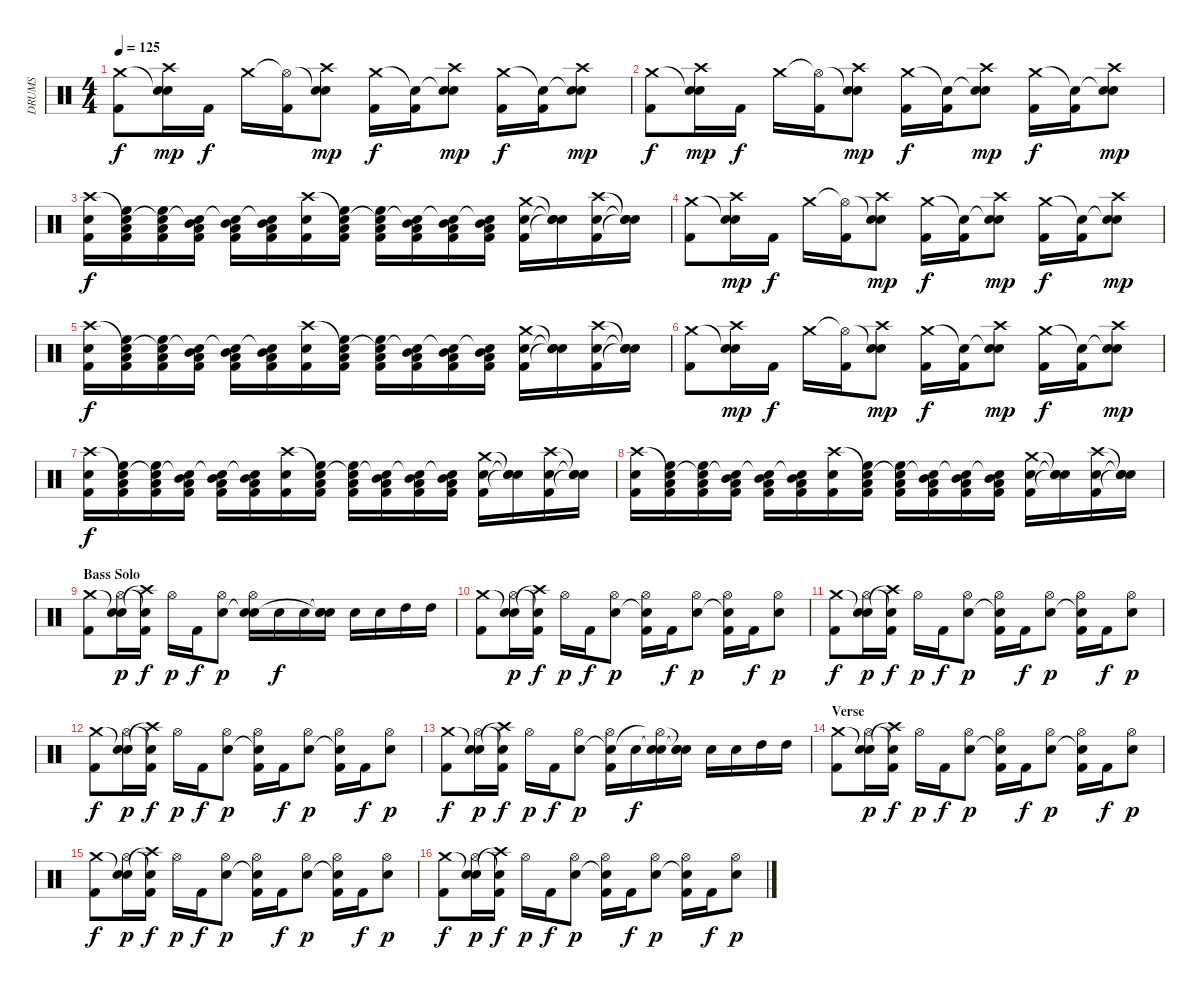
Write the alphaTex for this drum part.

\track ("DRUMS" "DRUMS") {instrument percussion}
\staff {score}
\articulation defaults
\ts (4 4)
\tempo 125
\clef neutral
\ks c
("Crash medium (hit)" "Kick (hit) 2").8{dy f} ("Snare (hit)"{t} "Crash high (hit)" "Electric Snare (hit)").16{dy mp} "Kick (hit) 2".16{dy f} "Crash medium (hit)".16 ("Hi-Hat (open)"{t} "Kick (hit) 2").16 ("Snare (hit)"{t} "Crash high (hit)" "Electric Snare (hit)").8{dy mp} ("Crash medium (hit)" "Kick (hit) 2").16{dy f} ("Snare (hit)"{t} "Kick (hit) 2").16 ("Snare (hit)"{t} "Crash high (hit)" "Electric Snare (hit)").8{dy mp} ("Crash medium (hit)" "Kick (hit) 2").16{dy f} ("Snare (hit)"{t} "Kick (hit) 2").16 ("Snare (hit)"{t} "Crash high (hit)" "Electric Snare (hit)").8{dy mp} |
("Crash medium (hit)" "Kick (hit) 2").8{dy f} ("Snare (hit)"{t} "Crash high (hit)" "Electric Snare (hit)").16{dy mp} "Kick (hit) 2".16{dy f} "Crash medium (hit)".16 ("Hi-Hat (open)"{t} "Kick (hit) 2").16 ("Snare (hit)"{t} "Crash high (hit)" "Electric Snare (hit)").8{dy mp} ("Crash medium (hit)" "Kick (hit) 2").16{dy f} ("Snare (hit)"{t} "Kick (hit) 2").16 ("Snare (hit)"{t} "Crash high (hit)" "Electric Snare (hit)").8{dy mp} ("Crash medium (hit)" "Kick (hit) 2").16{dy f} ("Snare (hit)"{t} "Kick (hit) 2").16 ("Snare (hit)"{t} "Crash high (hit)" "Electric Snare (hit)").8{dy mp} |
("Crash high (hit)" "Electric Snare (hit)" "Kick (hit) 2").16{dy f} ("Snare (hit)"{t} "Low Tom (hit)" "High Floor Tom (hit)" "Kick (hit) 2").16 ("Snare (hit)"{t} "Low Tom (hit)" "High Floor Tom (hit)" "Kick (hit) 2").16 ("Snare (hit)"{t} "Low Floor Tom (hit)" "Mid Tom (hit)" "Kick (hit) 2").16 ("Snare (hit)"{t} "Low Floor Tom (hit)" "Mid Tom (hit)" "Kick (hit) 2").16 ("Snare (hit)"{t} "Low Floor Tom (hit)" "Mid Tom (hit)" "Kick (hit) 2").16 ("Crash high (hit)" "Electric Snare (hit)" "Kick (hit) 2").16 ("Snare (hit)"{t} "Low Tom (hit)" "High Floor Tom (hit)" "Kick (hit) 2").16 ("Snare (hit)"{t} "Low Tom (hit)" "High Floor Tom (hit)" "Kick (hit) 2").16 ("Snare (hit)"{t} "Low Floor Tom (hit)" "Mid Tom (hit)" "Kick (hit) 2").16 ("Snare (hit)"{t} "Low Floor Tom (hit)" "Mid Tom (hit)" "Kick (hit) 2").16 ("Snare (hit)"{t} "Low Floor Tom (hit)" "Mid Tom (hit)" "Kick (hit) 2").16 ("Crash medium (hit)" "Electric Snare (hit)" "Kick (hit) 2").16 ("Snare (hit)"{t} "Snare (hit)"{t} "Snare (hit)"{t}).16 ("Crash high (hit)" "Electric Snare (hit)" "Kick (hit) 2").16 ("Snare (hit)"{t} "Snare (hit)"{t} "Snare (hit)"{t}).16 |
("Crash medium (hit)" "Kick (hit) 2").8 ("Snare (hit)"{t} "Crash high (hit)" "Electric Snare (hit)").16{dy mp} "Kick (hit) 2".16{dy f} "Crash medium (hit)".16 ("Hi-Hat (open)"{t} "Kick (hit) 2").16 ("Snare (hit)"{t} "Crash high (hit)" "Electric Snare (hit)").8{dy mp} ("Crash medium (hit)" "Kick (hit) 2").16{dy f} ("Snare (hit)"{t} "Kick (hit) 2").16 ("Snare (hit)"{t} "Crash high (hit)" "Electric Snare (hit)").8{dy mp} ("Crash medium (hit)" "Kick (hit) 2").16{dy f} ("Snare (hit)"{t} "Kick (hit) 2").16 ("Snare (hit)"{t} "Crash high (hit)" "Electric Snare (hit)").8{dy mp} |
("Crash high (hit)" "Electric Snare (hit)" "Kick (hit) 2").16{dy f} ("Snare (hit)"{t} "Low Tom (hit)" "High Floor Tom (hit)" "Kick (hit) 2").16 ("Snare (hit)"{t} "Low Tom (hit)" "High Floor Tom (hit)" "Kick (hit) 2").16 ("Snare (hit)"{t} "Low Floor Tom (hit)" "Mid Tom (hit)" "Kick (hit) 2").16 ("Snare (hit)"{t} "Low Floor Tom (hit)" "Mid Tom (hit)" "Kick (hit) 2").16 ("Snare (hit)"{t} "Low Floor Tom (hit)" "Mid Tom (hit)" "Kick (hit) 2").16 ("Crash high (hit)" "Electric Snare (hit)" "Kick (hit) 2").16 ("Snare (hit)"{t} "Low Tom (hit)" "High Floor Tom (hit)" "Kick (hit) 2").16 ("Snare (hit)"{t} "Low Tom (hit)" "High Floor Tom (hit)" "Kick (hit) 2").16 ("Snare (hit)"{t} "Low Floor Tom (hit)" "Mid Tom (hit)" "Kick (hit) 2").16 ("Snare (hit)"{t} "Low Floor Tom (hit)" "Mid Tom (hit)" "Kick (hit) 2").16 ("Snare (hit)"{t} "Low Floor Tom (hit)" "Mid Tom (hit)" "Kick (hit) 2").16 ("Crash medium (hit)" "Electric Snare (hit)" "Kick (hit) 2").16 ("Snare (hit)"{t} "Snare (hit)"{t} "Snare (hit)"{t}).16 ("Crash high (hit)" "Electric Snare (hit)" "Kick (hit) 2").16 ("Snare (hit)"{t} "Snare (hit)"{t} "Snare (hit)"{t}).16 |
("Crash medium (hit)" "Kick (hit) 2").8 ("Snare (hit)"{t} "Crash high (hit)" "Electric Snare (hit)").16{dy mp} "Kick (hit) 2".16{dy f} "Crash medium (hit)".16 ("Hi-Hat (open)"{t} "Kick (hit) 2").16 ("Snare (hit)"{t} "Crash high (hit)" "Electric Snare (hit)").8{dy mp} ("Crash medium (hit)" "Kick (hit) 2").16{dy f} ("Snare (hit)"{t} "Kick (hit) 2").16 ("Snare (hit)"{t} "Crash high (hit)" "Electric Snare (hit)").8{dy mp} ("Crash medium (hit)" "Kick (hit) 2").16{dy f} ("Snare (hit)"{t} "Kick (hit) 2").16 ("Snare (hit)"{t} "Crash high (hit)" "Electric Snare (hit)").8{dy mp} |
("Crash high (hit)" "Electric Snare (hit)" "Kick (hit) 2").16{dy f} ("Snare (hit)"{t} "Low Tom (hit)" "High Floor Tom (hit)" "Kick (hit) 2").16 ("Snare (hit)"{t} "Low Tom (hit)" "High Floor Tom (hit)" "Kick (hit) 2").16 ("Snare (hit)"{t} "Low Floor Tom (hit)" "Mid Tom (hit)" "Kick (hit) 2").16 ("Snare (hit)"{t} "Low Floor Tom (hit)" "Mid Tom (hit)" "Kick (hit) 2").16 ("Snare (hit)"{t} "Low Floor Tom (hit)" "Mid Tom (hit)" "Kick (hit) 2").16 ("Crash high (hit)" "Electric Snare (hit)" "Kick (hit) 2").16 ("Snare (hit)"{t} "Low Tom (hit)" "High Floor Tom (hit)" "Kick (hit) 2").16 ("Snare (hit)"{t} "Low Tom (hit)" "High Floor Tom (hit)" "Kick (hit) 2").16 ("Snare (hit)"{t} "Low Floor Tom (hit)" "Mid Tom (hit)" "Kick (hit) 2").16 ("Snare (hit)"{t} "Low Floor Tom (hit)" "Mid Tom (hit)" "Kick (hit) 2").16 ("Snare (hit)"{t} "Low Floor Tom (hit)" "Mid Tom (hit)" "Kick (hit) 2").16 ("Crash medium (hit)" "Electric Snare (hit)" "Kick (hit) 2").16 ("Snare (hit)"{t} "Snare (hit)"{t} "Snare (hit)"{t}).16 ("Crash high (hit)" "Electric Snare (hit)" "Kick (hit) 2").16 ("Snare (hit)"{t} "Snare (hit)"{t} "Snare (hit)"{t}).16 |
("Crash high (hit)" "Electric Snare (hit)" "Kick (hit) 2").16 ("Snare (hit)"{t} "Low Tom (hit)" "High Floor Tom (hit)" "Kick (hit) 2").16 ("Snare (hit)"{t} "Low Tom (hit)" "High Floor Tom (hit)" "Kick (hit) 2").16 ("Snare (hit)"{t} "Low Floor Tom (hit)" "Mid Tom (hit)" "Kick (hit) 2").16 ("Snare (hit)"{t} "Low Floor Tom (hit)" "Mid Tom (hit)" "Kick (hit) 2").16 ("Snare (hit)"{t} "Low Floor Tom (hit)" "Mid Tom (hit)" "Kick (hit) 2").16 ("Crash high (hit)" "Electric Snare (hit)" "Kick (hit) 2").16 ("Snare (hit)"{t} "Low Tom (hit)" "High Floor Tom (hit)" "Kick (hit) 2").16 ("Snare (hit)"{t} "Low Tom (hit)" "High Floor Tom (hit)" "Kick (hit) 2").16 ("Snare (hit)"{t} "Low Floor Tom (hit)" "Mid Tom (hit)" "Kick (hit) 2").16 ("Snare (hit)"{t} "Low Floor Tom (hit)" "Mid Tom (hit)" "Kick (hit) 2").16 ("Snare (hit)"{t} "Low Floor Tom (hit)" "Mid Tom (hit)" "Kick (hit) 2").16 ("Crash medium (hit)" "Electric Snare (hit)" "Kick (hit) 2").16 ("Snare (hit)"{t} "Snare (hit)"{t} "Snare (hit)"{t}).16 ("Crash high (hit)" "Electric Snare (hit)" "Kick (hit) 2").16 ("Snare (hit)"{t} "Snare (hit)"{t} "Snare (hit)"{t}).16 |
\section ("" "Bass Solo")
("Crash medium (hit)" "Kick (hit) 2").8 ("Snare (hit)"{t} "Hi-Hat (open)" "Electric Snare (hit)").16{dy p} ("Crash high (hit)"{t} "Snare (hit)"{t} "Kick (hit) 2").16{dy f} "Hi-Hat (open)".16{dy p} "Kick (hit) 2".16{dy f} ("Hi-Hat (open)" "Electric Snare (hit)").8{dy p} ("Hi-Hat (open)" "Snare (hit)"{t} "Electric Snare (hit)").16 "Electric Snare (hit)".16{dy f} "Electric Snare (hit)".16 ("Snare (hit)"{t} "Snare (hit)"{t} "Electric Snare (hit)").16 "Electric Snare (hit)".16 "Electric Snare (hit)".16 "High Tom (hit)".16 "High Tom (hit)".16 |
("Crash medium (hit)" "Kick (hit) 2").8 ("Snare (hit)"{t} "Hi-Hat (open)" "Electric Snare (hit)").16{dy p} ("Crash high (hit)"{t} "Snare (hit)"{t} "Kick (hit) 2").16{dy f} "Hi-Hat (open)".16{dy p} "Kick (hit) 2".16{dy f} ("Hi-Hat (open)" "Electric Snare (hit)").8{dy p} ("Hi-Hat (open)" "Snare (hit)"{t} "Kick (hit) 2").16 "Kick (hit) 2".16{dy f} ("Hi-Hat (open)" "Electric Snare (hit)").8{dy p} ("Hi-Hat (open)" "Snare (hit)"{t} "Kick (hit) 2").16 "Kick (hit) 2".16{dy f} ("Hi-Hat (open)" "Electric Snare (hit)").8{dy p} |
("Crash medium (hit)" "Kick (hit) 2").8{dy f} ("Snare (hit)"{t} "Hi-Hat (open)" "Electric Snare (hit)").16{dy p} ("Crash high (hit)"{t} "Snare (hit)"{t} "Kick (hit) 2").16{dy f} "Hi-Hat (open)".16{dy p} "Kick (hit) 2".16{dy f} ("Hi-Hat (open)" "Electric Snare (hit)").8{dy p} ("Hi-Hat (open)" "Snare (hit)"{t} "Kick (hit) 2").16 "Kick (hit) 2".16{dy f} ("Hi-Hat (open)" "Electric Snare (hit)").8{dy p} ("Hi-Hat (open)" "Snare (hit)"{t} "Kick (hit) 2").16 "Kick (hit) 2".16{dy f} ("Hi-Hat (open)" "Electric Snare (hit)").8{dy p} |
("Crash medium (hit)" "Kick (hit) 2").8{dy f} ("Snare (hit)"{t} "Hi-Hat (open)" "Electric Snare (hit)").16{dy p} ("Crash high (hit)"{t} "Snare (hit)"{t} "Kick (hit) 2").16{dy f} "Hi-Hat (open)".16{dy p} "Kick (hit) 2".16{dy f} ("Hi-Hat (open)" "Electric Snare (hit)").8{dy p} ("Hi-Hat (open)" "Snare (hit)"{t} "Kick (hit) 2").16 "Kick (hit) 2".16{dy f} ("Hi-Hat (open)" "Electric Snare (hit)").8{dy p} ("Hi-Hat (open)" "Snare (hit)"{t} "Kick (hit) 2").16 "Kick (hit) 2".16{dy f} ("Hi-Hat (open)" "Electric Snare (hit)").8{dy p} |
("Crash medium (hit)" "Kick (hit) 2").8{dy f} ("Snare (hit)"{t} "Hi-Hat (open)" "Electric Snare (hit)").16{dy p} ("Crash high (hit)"{t} "Snare (hit)"{t} "Kick (hit) 2").16{dy f} "Hi-Hat (open)".16{dy p} "Kick (hit) 2".16{dy f} ("Hi-Hat (open)" "Electric Snare (hit)").8{dy p} ("Hi-Hat (open)" "Snare (hit)"{t} "Kick (hit) 2").16 "Electric Snare (hit)".16{dy f} ("Snare (hit)"{t} "Hi-Hat (open)"{t} "Electric Snare (hit)").16 ("Snare (hit)"{t} "Snare (hit)"{t} "Electric Snare (hit)").16 "Electric Snare (hit)".16 "Electric Snare (hit)".16 "High Tom (hit)".16 "High Tom (hit)".16 |
\section ("" "Verse")
("Crash medium (hit)" "Kick (hit) 2").8 ("Snare (hit)"{t} "Hi-Hat (open)" "Electric Snare (hit)").16{dy p} ("Crash high (hit)"{t} "Snare (hit)"{t} "Kick (hit) 2").16{dy f} "Hi-Hat (open)".16{dy p} "Kick (hit) 2".16{dy f} ("Hi-Hat (open)" "Electric Snare (hit)").8{dy p} ("Hi-Hat (open)" "Snare (hit)"{t} "Kick (hit) 2").16 "Kick (hit) 2".16{dy f} ("Hi-Hat (open)" "Electric Snare (hit)").8{dy p} ("Hi-Hat (open)" "Snare (hit)"{t} "Kick (hit) 2").16 "Kick (hit) 2".16{dy f} ("Hi-Hat (open)" "Electric Snare (hit)").8{dy p} |
("Crash medium (hit)" "Kick (hit) 2").8{dy f} ("Snare (hit)"{t} "Hi-Hat (open)" "Electric Snare (hit)").16{dy p} ("Crash high (hit)"{t} "Snare (hit)"{t} "Kick (hit) 2").16{dy f} "Hi-Hat (open)".16{dy p} "Kick (hit) 2".16{dy f} ("Hi-Hat (open)" "Electric Snare (hit)").8{dy p} ("Hi-Hat (open)" "Snare (hit)"{t} "Kick (hit) 2").16 "Kick (hit) 2".16{dy f} ("Hi-Hat (open)" "Electric Snare (hit)").8{dy p} ("Hi-Hat (open)" "Snare (hit)"{t} "Kick (hit) 2").16 "Kick (hit) 2".16{dy f} ("Hi-Hat (open)" "Electric Snare (hit)").8{dy p} |
("Crash medium (hit)" "Kick (hit) 2").8{dy f} ("Snare (hit)"{t} "Hi-Hat (open)" "Electric Snare (hit)").16{dy p} ("Crash high (hit)"{t} "Snare (hit)"{t} "Kick (hit) 2").16{dy f} "Hi-Hat (open)".16{dy p} "Kick (hit) 2".16{dy f} ("Hi-Hat (open)" "Electric Snare (hit)").8{dy p} ("Hi-Hat (open)" "Snare (hit)"{t} "Kick (hit) 2").16 "Kick (hit) 2".16{dy f} ("Hi-Hat (open)" "Electric Snare (hit)").8{dy p} ("Hi-Hat (open)" "Snare (hit)"{t} "Kick (hit) 2").16 "Kick (hit) 2".16{dy f} ("Hi-Hat (open)" "Electric Snare (hit)").8{dy p}
